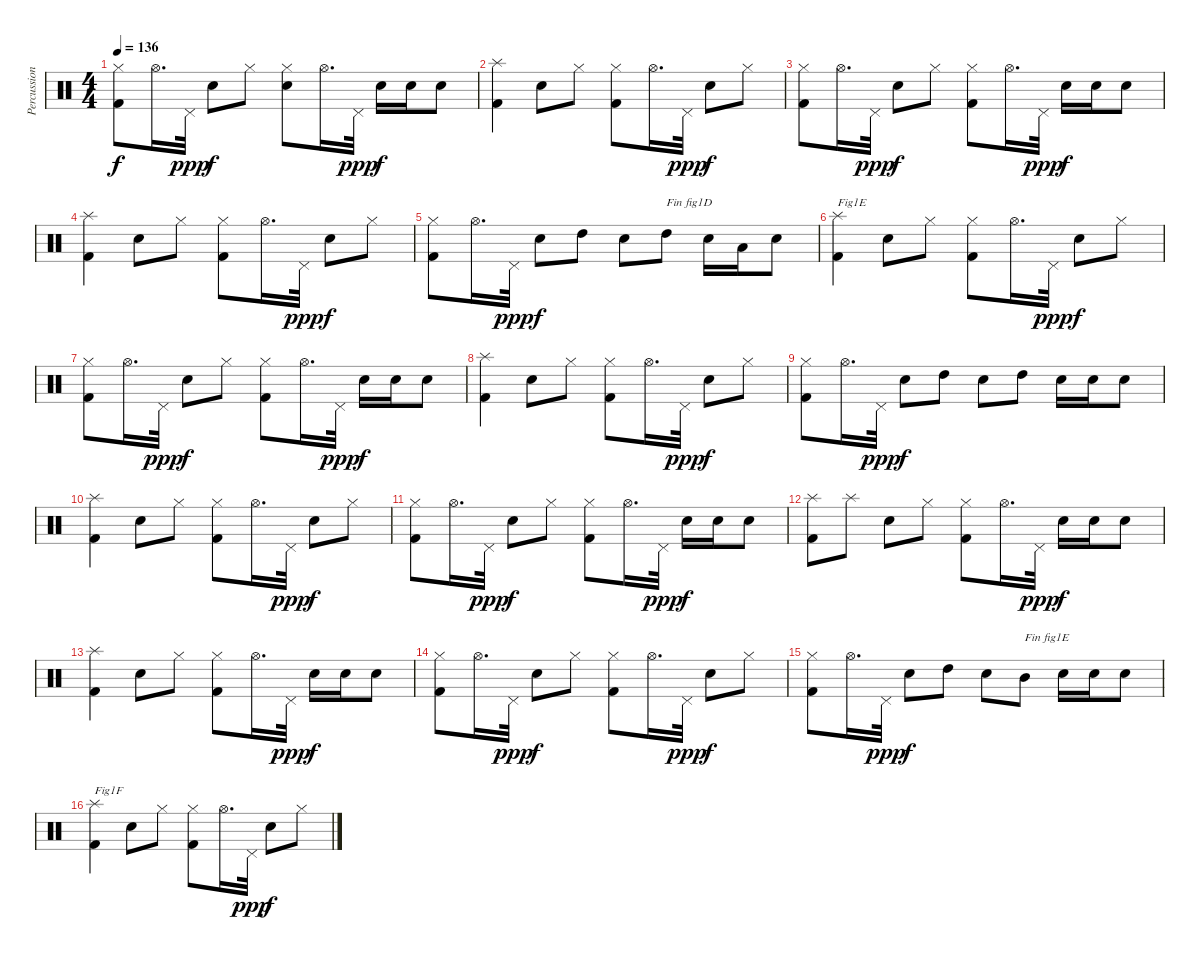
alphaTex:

\track ("Percussions" "Percussion") {instrument percussion}
\staff {score}
\articulation defaults
\ts (4 4)
\tempo 136
\clef neutral
\ks c
("Kick (hit) 2" "Hi-Hat (closed)").8{dy f} "Hi-Hat (open)".16{d} "Pedal Hi-Hat (hit)".32{dy ppp} "Electric Snare (hit)".8{dy f} "Hi-Hat (closed)".8 ("Electric Snare (hit)" "Hi-Hat (closed)").8 "Hi-Hat (open)".16{d} "Pedal Hi-Hat (hit)".32{dy ppp} "Electric Snare (hit)".16{dy f} "Electric Snare (hit)".16 "Electric Snare (hit)".8 |
("Kick (hit) 2" "Splash (hit)").4 "Electric Snare (hit)".8 "Hi-Hat (closed)".8 ("Kick (hit) 2" "Hi-Hat (closed)").8 "Hi-Hat (open)".16{d} "Pedal Hi-Hat (hit)".32{dy ppp} "Electric Snare (hit)".8{dy f} "Hi-Hat (closed)".8 |
("Kick (hit) 2" "Hi-Hat (closed)").8 "Hi-Hat (open)".16{d} "Pedal Hi-Hat (hit)".32{dy ppp} "Electric Snare (hit)".8{dy f} "Hi-Hat (closed)".8 ("Kick (hit) 2" "Hi-Hat (closed)").8 "Hi-Hat (open)".16{d} "Pedal Hi-Hat (hit)".32{dy ppp} "Electric Snare (hit)".16{dy f} "Electric Snare (hit)".16 "Electric Snare (hit)".8 |
("Kick (hit) 2" "Splash (hit)").4 "Electric Snare (hit)".8 "Hi-Hat (closed)".8 ("Kick (hit) 2" "Hi-Hat (closed)").8 "Hi-Hat (open)".16{d} "Pedal Hi-Hat (hit)".32{dy ppp} "Electric Snare (hit)".8{dy f} "Hi-Hat (closed)".8 |
("Kick (hit) 2" "Hi-Hat (closed)").8 "Hi-Hat (open)".16{d} "Pedal Hi-Hat (hit)".32{dy ppp} "Electric Snare (hit)".8{dy f} "High Tom (hit)".8 "Electric Snare (hit)".8 "High Tom (hit)".8{txt "Fin fig1D"} "Electric Snare (hit)".16 "Low Tom (hit)".16 "Electric Snare (hit)".8 |
("Kick (hit) 2" "Splash (hit)").4{txt "Fig1E"} "Electric Snare (hit)".8 "Hi-Hat (closed)".8 ("Kick (hit) 2" "Hi-Hat (closed)").8 "Hi-Hat (open)".16{d} "Pedal Hi-Hat (hit)".32{dy ppp} "Electric Snare (hit)".8{dy f} "Hi-Hat (closed)".8 |
("Kick (hit) 2" "Hi-Hat (closed)").8 "Hi-Hat (open)".16{d} "Pedal Hi-Hat (hit)".32{dy ppp} "Electric Snare (hit)".8{dy f} "Hi-Hat (closed)".8 ("Kick (hit) 2" "Hi-Hat (closed)").8 "Hi-Hat (open)".16{d} "Pedal Hi-Hat (hit)".32{dy ppp} "Electric Snare (hit)".16{dy f} "Electric Snare (hit)".16 "Electric Snare (hit)".8 |
("Kick (hit) 2" "Splash (hit)").4 "Electric Snare (hit)".8 "Hi-Hat (closed)".8 ("Kick (hit) 2" "Hi-Hat (closed)").8 "Hi-Hat (open)".16{d} "Pedal Hi-Hat (hit)".32{dy ppp} "Electric Snare (hit)".8{dy f} "Hi-Hat (closed)".8 |
("Kick (hit) 2" "Hi-Hat (closed)").8 "Hi-Hat (open)".16{d} "Pedal Hi-Hat (hit)".32{dy ppp} "Electric Snare (hit)".8{dy f} "High Tom (hit)".8 "Electric Snare (hit)".8 "High Tom (hit)".8 "Electric Snare (hit)".16 "Electric Snare (hit)".16 "Electric Snare (hit)".8 |
("Kick (hit) 2" "Splash (hit)").4 "Electric Snare (hit)".8 "Hi-Hat (closed)".8 ("Kick (hit) 2" "Hi-Hat (closed)").8 "Hi-Hat (open)".16{d} "Pedal Hi-Hat (hit)".32{dy ppp} "Electric Snare (hit)".8{dy f} "Hi-Hat (closed)".8 |
("Kick (hit) 2" "Hi-Hat (closed)").8 "Hi-Hat (open)".16{d} "Pedal Hi-Hat (hit)".32{dy ppp} "Electric Snare (hit)".8{dy f} "Hi-Hat (closed)".8 ("Kick (hit) 2" "Hi-Hat (closed)").8 "Hi-Hat (open)".16{d} "Pedal Hi-Hat (hit)".32{dy ppp} "Electric Snare (hit)".16{dy f} "Electric Snare (hit)".16 "Electric Snare (hit)".8 |
("Kick (hit) 2" "Splash (hit)").8 "Splash (hit)".8 "Electric Snare (hit)".8 "Hi-Hat (closed)".8 ("Kick (hit) 2" "Hi-Hat (closed)").8 "Hi-Hat (open)".16{d} "Pedal Hi-Hat (hit)".32{dy ppp} "Electric Snare (hit)".16{dy f} "Electric Snare (hit)".16 "Electric Snare (hit)".8 |
("Kick (hit) 2" "Splash (hit)").4 "Electric Snare (hit)".8 "Hi-Hat (closed)".8 ("Kick (hit) 2" "Hi-Hat (closed)").8 "Hi-Hat (open)".16{d} "Pedal Hi-Hat (hit)".32{dy ppp} "Electric Snare (hit)".16{dy f} "Electric Snare (hit)".16 "Electric Snare (hit)".8 |
("Kick (hit) 2" "Hi-Hat (closed)").8 "Hi-Hat (open)".16{d} "Pedal Hi-Hat (hit)".32{dy ppp} "Electric Snare (hit)".8{dy f} "Hi-Hat (closed)".8 ("Kick (hit) 2" "Hi-Hat (closed)").8 "Hi-Hat (open)".16{d} "Pedal Hi-Hat (hit)".32{dy ppp} "Electric Snare (hit)".8{dy f} "Hi-Hat (closed)".8 |
("Kick (hit) 2" "Hi-Hat (closed)").8 "Hi-Hat (open)".16{d} "Pedal Hi-Hat (hit)".32{dy ppp} "Electric Snare (hit)".8{dy f} "High Tom (hit)".8 "Electric Snare (hit)".8 "Mid Tom (hit)".8{txt "Fin fig1E"} "Electric Snare (hit)".16 "Electric Snare (hit)".16 "Electric Snare (hit)".8 |
("Kick (hit) 2" "Splash (hit)").4{txt "Fig1F"} "Electric Snare (hit)".8 "Hi-Hat (closed)".8 ("Kick (hit) 2" "Hi-Hat (closed)").8 "Hi-Hat (open)".16{d} "Pedal Hi-Hat (hit)".32{dy ppp} "Electric Snare (hit)".8{dy f} "Hi-Hat (closed)".8
